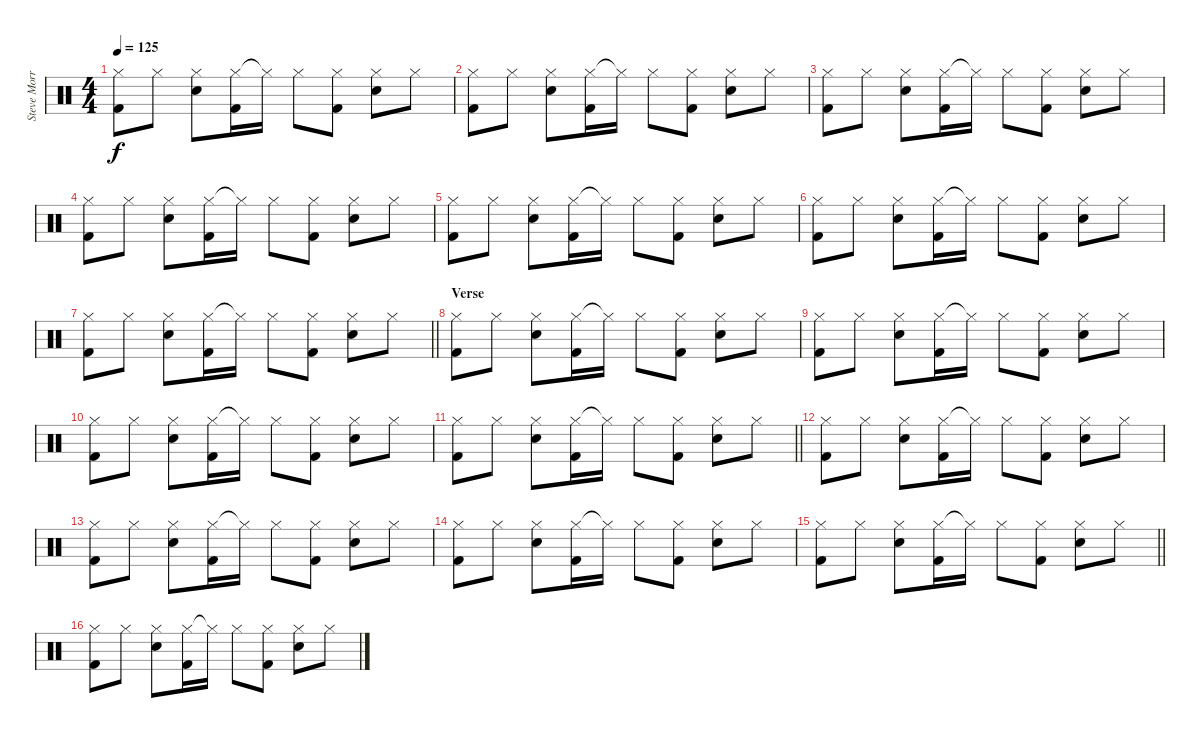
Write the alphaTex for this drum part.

\track ("Steve Morris" "Steve Morr") {instrument percussion}
\staff {score}
\articulation defaults
\ts (4 4)
\tempo 125
\clef neutral
\ks c
("Hi-Hat (closed)" "Kick (hit) 2").8{dy f} "Hi-Hat (closed)".8 ("Hi-Hat (closed)" "Electric Snare (hit)").8 ("Hi-Hat (closed)" "Kick (hit) 2").16 "Hi-Hat (closed)"{t}.16 "Hi-Hat (closed)".8 ("Hi-Hat (closed)" "Kick (hit) 2").8 ("Hi-Hat (closed)" "Electric Snare (hit)").8 "Hi-Hat (closed)".8 |
("Hi-Hat (closed)" "Kick (hit) 2").8 "Hi-Hat (closed)".8 ("Hi-Hat (closed)" "Electric Snare (hit)").8 ("Hi-Hat (closed)" "Kick (hit) 2").16 "Hi-Hat (closed)"{t}.16 "Hi-Hat (closed)".8 ("Hi-Hat (closed)" "Kick (hit) 2").8 ("Hi-Hat (closed)" "Electric Snare (hit)").8 "Hi-Hat (closed)".8 |
("Hi-Hat (closed)" "Kick (hit) 2").8 "Hi-Hat (closed)".8 ("Hi-Hat (closed)" "Electric Snare (hit)").8 ("Hi-Hat (closed)" "Kick (hit) 2").16 "Hi-Hat (closed)"{t}.16 "Hi-Hat (closed)".8 ("Hi-Hat (closed)" "Kick (hit) 2").8 ("Hi-Hat (closed)" "Electric Snare (hit)").8 "Hi-Hat (closed)".8 |
("Hi-Hat (closed)" "Kick (hit) 2").8 "Hi-Hat (closed)".8 ("Hi-Hat (closed)" "Electric Snare (hit)").8 ("Hi-Hat (closed)" "Kick (hit) 2").16 "Hi-Hat (closed)"{t}.16 "Hi-Hat (closed)".8 ("Hi-Hat (closed)" "Kick (hit) 2").8 ("Hi-Hat (closed)" "Electric Snare (hit)").8 "Hi-Hat (closed)".8 |
("Hi-Hat (closed)" "Kick (hit) 2").8 "Hi-Hat (closed)".8 ("Hi-Hat (closed)" "Electric Snare (hit)").8 ("Hi-Hat (closed)" "Kick (hit) 2").16 "Hi-Hat (closed)"{t}.16 "Hi-Hat (closed)".8 ("Hi-Hat (closed)" "Kick (hit) 2").8 ("Hi-Hat (closed)" "Electric Snare (hit)").8 "Hi-Hat (closed)".8 |
("Hi-Hat (closed)" "Kick (hit) 2").8 "Hi-Hat (closed)".8 ("Hi-Hat (closed)" "Electric Snare (hit)").8 ("Hi-Hat (closed)" "Kick (hit) 2").16 "Hi-Hat (closed)"{t}.16 "Hi-Hat (closed)".8 ("Hi-Hat (closed)" "Kick (hit) 2").8 ("Hi-Hat (closed)" "Electric Snare (hit)").8 "Hi-Hat (closed)".8 |
\barLineRight lightlight
("Hi-Hat (closed)" "Kick (hit) 2").8 "Hi-Hat (closed)".8 ("Hi-Hat (closed)" "Electric Snare (hit)").8 ("Hi-Hat (closed)" "Kick (hit) 2").16 "Hi-Hat (closed)"{t}.16 "Hi-Hat (closed)".8 ("Hi-Hat (closed)" "Kick (hit) 2").8 ("Hi-Hat (closed)" "Electric Snare (hit)").8 "Hi-Hat (closed)".8 |
\section ("" "Verse")
("Hi-Hat (closed)" "Kick (hit) 2").8 "Hi-Hat (closed)".8 ("Hi-Hat (closed)" "Electric Snare (hit)").8 ("Hi-Hat (closed)" "Kick (hit) 2").16 "Hi-Hat (closed)"{t}.16 "Hi-Hat (closed)".8 ("Hi-Hat (closed)" "Kick (hit) 2").8 ("Hi-Hat (closed)" "Electric Snare (hit)").8 "Hi-Hat (closed)".8 |
("Hi-Hat (closed)" "Kick (hit) 2").8 "Hi-Hat (closed)".8 ("Hi-Hat (closed)" "Electric Snare (hit)").8 ("Hi-Hat (closed)" "Kick (hit) 2").16 "Hi-Hat (closed)"{t}.16 "Hi-Hat (closed)".8 ("Hi-Hat (closed)" "Kick (hit) 2").8 ("Hi-Hat (closed)" "Electric Snare (hit)").8 "Hi-Hat (closed)".8 |
("Hi-Hat (closed)" "Kick (hit) 2").8 "Hi-Hat (closed)".8 ("Hi-Hat (closed)" "Electric Snare (hit)").8 ("Hi-Hat (closed)" "Kick (hit) 2").16 "Hi-Hat (closed)"{t}.16 "Hi-Hat (closed)".8 ("Hi-Hat (closed)" "Kick (hit) 2").8 ("Hi-Hat (closed)" "Electric Snare (hit)").8 "Hi-Hat (closed)".8 |
\barLineRight lightlight
("Hi-Hat (closed)" "Kick (hit) 2").8 "Hi-Hat (closed)".8 ("Hi-Hat (closed)" "Electric Snare (hit)").8 ("Hi-Hat (closed)" "Kick (hit) 2").16 "Hi-Hat (closed)"{t}.16 "Hi-Hat (closed)".8 ("Hi-Hat (closed)" "Kick (hit) 2").8 ("Hi-Hat (closed)" "Electric Snare (hit)").8 "Hi-Hat (closed)".8 |
("Hi-Hat (closed)" "Kick (hit) 2").8 "Hi-Hat (closed)".8 ("Hi-Hat (closed)" "Electric Snare (hit)").8 ("Hi-Hat (closed)" "Kick (hit) 2").16 "Hi-Hat (closed)"{t}.16 "Hi-Hat (closed)".8 ("Hi-Hat (closed)" "Kick (hit) 2").8 ("Hi-Hat (closed)" "Electric Snare (hit)").8 "Hi-Hat (closed)".8 |
("Hi-Hat (closed)" "Kick (hit) 2").8 "Hi-Hat (closed)".8 ("Hi-Hat (closed)" "Electric Snare (hit)").8 ("Hi-Hat (closed)" "Kick (hit) 2").16 "Hi-Hat (closed)"{t}.16 "Hi-Hat (closed)".8 ("Hi-Hat (closed)" "Kick (hit) 2").8 ("Hi-Hat (closed)" "Electric Snare (hit)").8 "Hi-Hat (closed)".8 |
("Hi-Hat (closed)" "Kick (hit) 2").8 "Hi-Hat (closed)".8 ("Hi-Hat (closed)" "Electric Snare (hit)").8 ("Hi-Hat (closed)" "Kick (hit) 2").16 "Hi-Hat (closed)"{t}.16 "Hi-Hat (closed)".8 ("Hi-Hat (closed)" "Kick (hit) 2").8 ("Hi-Hat (closed)" "Electric Snare (hit)").8 "Hi-Hat (closed)".8 |
\barLineRight lightlight
("Hi-Hat (closed)" "Kick (hit) 2").8 "Hi-Hat (closed)".8 ("Hi-Hat (closed)" "Electric Snare (hit)").8 ("Hi-Hat (closed)" "Kick (hit) 2").16 "Hi-Hat (closed)"{t}.16 "Hi-Hat (closed)".8 ("Hi-Hat (closed)" "Kick (hit) 2").8 ("Hi-Hat (closed)" "Electric Snare (hit)").8 "Hi-Hat (closed)".8 |
("Hi-Hat (closed)" "Kick (hit) 2").8 "Hi-Hat (closed)".8 ("Hi-Hat (closed)" "Electric Snare (hit)").8 ("Hi-Hat (closed)" "Kick (hit) 2").16 "Hi-Hat (closed)"{t}.16 "Hi-Hat (closed)".8 ("Hi-Hat (closed)" "Kick (hit) 2").8 ("Hi-Hat (closed)" "Electric Snare (hit)").8 "Hi-Hat (closed)".8
